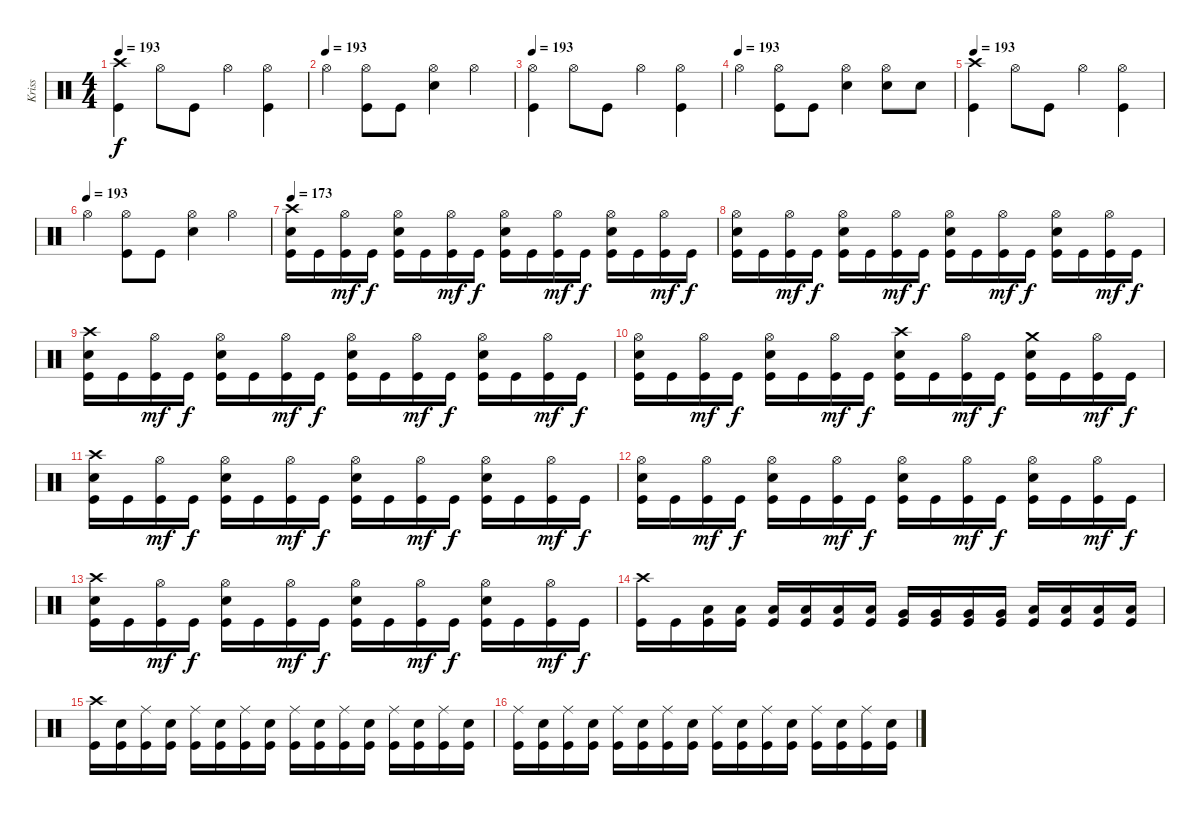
\track ("Kriss" "Kriss") {instrument percussion}
\staff {score}
\articulation defaults
\ts (4 4)
\tempo 193
\clef neutral
\ks c
("Crash high (hit)" "Kick (hit)").4{dy f} "Hi-Hat (open)".8 "Kick (hit)".8 "Hi-Hat (open)".4 ("Hi-Hat (open)" "Kick (hit)").4 |
\tempo (193)
"Hi-Hat (open)".4 ("Hi-Hat (open)" "Kick (hit)").8 "Kick (hit)".8 ("Hi-Hat (open)" "Snare (hit) 2").4 "Hi-Hat (open)".4 |
\tempo 193
("Hi-Hat (open)" "Kick (hit)").4 "Hi-Hat (open)".8 "Kick (hit)".8 "Hi-Hat (open)".4 ("Hi-Hat (open)" "Kick (hit)").4 |
\tempo (193)
"Hi-Hat (open)".4 ("Hi-Hat (open)" "Kick (hit)").8 "Kick (hit)".8 ("Hi-Hat (open)" "Snare (hit) 2").4 ("Hi-Hat (open)" "Snare (hit) 2").8 "Snare (hit) 2".8 |
\tempo 193
("Crash high (hit)" "Kick (hit)").4 "Hi-Hat (open)".8 "Kick (hit)".8 "Hi-Hat (open)".4 ("Hi-Hat (open)" "Kick (hit)").4 |
\tempo (193)
"Hi-Hat (open)".4 ("Hi-Hat (open)" "Kick (hit)").8 "Kick (hit)".8 ("Hi-Hat (open)" "Snare (hit) 2").4 "Hi-Hat (open)".4 |
\tempo 173
("Crash high (hit)" "Snare (hit) 2" "Kick (hit)").16 "Kick (hit)".16 ("Hi-Hat (open)" "Kick (hit)").16{dy mf} "Kick (hit)".16{dy f} ("Hi-Hat (open)" "Snare (hit) 2" "Kick (hit)").16 "Kick (hit)".16 ("Hi-Hat (open)" "Kick (hit)").16{dy mf} "Kick (hit)".16{dy f} ("Hi-Hat (open)" "Snare (hit) 2" "Kick (hit)").16 "Kick (hit)".16 ("Hi-Hat (open)" "Kick (hit)").16{dy mf} "Kick (hit)".16{dy f} ("Hi-Hat (open)" "Snare (hit) 2" "Kick (hit)").16 "Kick (hit)".16 ("Hi-Hat (open)" "Kick (hit)").16{dy mf} "Kick (hit)".16{dy f} |
("Hi-Hat (open)" "Snare (hit) 2" "Kick (hit)").16 "Kick (hit)".16 ("Hi-Hat (open)" "Kick (hit)").16{dy mf} "Kick (hit)".16{dy f} ("Hi-Hat (open)" "Snare (hit) 2" "Kick (hit)").16 "Kick (hit)".16 ("Hi-Hat (open)" "Kick (hit)").16{dy mf} "Kick (hit)".16{dy f} ("Hi-Hat (open)" "Snare (hit) 2" "Kick (hit)").16 "Kick (hit)".16 ("Hi-Hat (open)" "Kick (hit)").16{dy mf} "Kick (hit)".16{dy f} ("Hi-Hat (open)" "Snare (hit) 2" "Kick (hit)").16 "Kick (hit)".16 ("Hi-Hat (open)" "Kick (hit)").16{dy mf} "Kick (hit)".16{dy f} |
("Crash high (hit)" "Snare (hit) 2" "Kick (hit)").16 "Kick (hit)".16 ("Hi-Hat (open)" "Kick (hit)").16{dy mf} "Kick (hit)".16{dy f} ("Hi-Hat (open)" "Snare (hit) 2" "Kick (hit)").16 "Kick (hit)".16 ("Hi-Hat (open)" "Kick (hit)").16{dy mf} "Kick (hit)".16{dy f} ("Hi-Hat (open)" "Snare (hit) 2" "Kick (hit)").16 "Kick (hit)".16 ("Hi-Hat (open)" "Kick (hit)").16{dy mf} "Kick (hit)".16{dy f} ("Hi-Hat (open)" "Snare (hit) 2" "Kick (hit)").16 "Kick (hit)".16 ("Hi-Hat (open)" "Kick (hit)").16{dy mf} "Kick (hit)".16{dy f} |
("Hi-Hat (open)" "Snare (hit) 2" "Kick (hit)").16 "Kick (hit)".16 ("Hi-Hat (open)" "Kick (hit)").16{dy mf} "Kick (hit)".16{dy f} ("Hi-Hat (open)" "Snare (hit) 2" "Kick (hit)").16 "Kick (hit)".16 ("Hi-Hat (open)" "Kick (hit)").16{dy mf} "Kick (hit)".16{dy f} ("Crash high (hit)" "Snare (hit) 2" "Kick (hit)").16 "Kick (hit)".16 ("Hi-Hat (open)" "Kick (hit)").16{dy mf} "Kick (hit)".16{dy f} ("Crash medium (hit)" "Snare (hit) 2" "Kick (hit)").16 "Kick (hit)".16 ("Hi-Hat (open)" "Kick (hit)").16{dy mf} "Kick (hit)".16{dy f} |
("Crash high (hit)" "Snare (hit) 2" "Kick (hit)").16 "Kick (hit)".16 ("Hi-Hat (open)" "Kick (hit)").16{dy mf} "Kick (hit)".16{dy f} ("Hi-Hat (open)" "Snare (hit) 2" "Kick (hit)").16 "Kick (hit)".16 ("Hi-Hat (open)" "Kick (hit)").16{dy mf} "Kick (hit)".16{dy f} ("Hi-Hat (open)" "Snare (hit) 2" "Kick (hit)").16 "Kick (hit)".16 ("Hi-Hat (open)" "Kick (hit)").16{dy mf} "Kick (hit)".16{dy f} ("Hi-Hat (open)" "Snare (hit) 2" "Kick (hit)").16 "Kick (hit)".16 ("Hi-Hat (open)" "Kick (hit)").16{dy mf} "Kick (hit)".16{dy f} |
("Hi-Hat (open)" "Snare (hit) 2" "Kick (hit)").16 "Kick (hit)".16 ("Hi-Hat (open)" "Kick (hit)").16{dy mf} "Kick (hit)".16{dy f} ("Hi-Hat (open)" "Snare (hit) 2" "Kick (hit)").16 "Kick (hit)".16 ("Hi-Hat (open)" "Kick (hit)").16{dy mf} "Kick (hit)".16{dy f} ("Hi-Hat (open)" "Snare (hit) 2" "Kick (hit)").16 "Kick (hit)".16 ("Hi-Hat (open)" "Kick (hit)").16{dy mf} "Kick (hit)".16{dy f} ("Hi-Hat (open)" "Snare (hit) 2" "Kick (hit)").16 "Kick (hit)".16 ("Hi-Hat (open)" "Kick (hit)").16{dy mf} "Kick (hit)".16{dy f} |
("Crash high (hit)" "Snare (hit) 2" "Kick (hit)").16 "Kick (hit)".16 ("Hi-Hat (open)" "Kick (hit)").16{dy mf} "Kick (hit)".16{dy f} ("Hi-Hat (open)" "Snare (hit) 2" "Kick (hit)").16 "Kick (hit)".16 ("Hi-Hat (open)" "Kick (hit)").16{dy mf} "Kick (hit)".16{dy f} ("Hi-Hat (open)" "Snare (hit) 2" "Kick (hit)").16 "Kick (hit)".16 ("Hi-Hat (open)" "Kick (hit)").16{dy mf} "Kick (hit)".16{dy f} ("Hi-Hat (open)" "Snare (hit) 2" "Kick (hit)").16 "Kick (hit)".16 ("Hi-Hat (open)" "Kick (hit)").16{dy mf} "Kick (hit)".16{dy f} |
("Crash high (hit)" "Kick (hit)").16 "Kick (hit)".16 ("Low Tom (hit)" "Kick (hit)").16 ("Low Tom (hit)" "Kick (hit)").16 ("Low Tom (hit)" "Kick (hit)").16 ("Low Tom (hit)" "Kick (hit)").16 ("Low Tom (hit)" "Kick (hit)").16 ("Low Tom (hit)" "Kick (hit)").16 ("Very Low Tom (hit)" "Kick (hit)").16 ("Very Low Tom (hit)" "Kick (hit)").16 ("Very Low Tom (hit)" "Kick (hit)").16 ("Very Low Tom (hit)" "Kick (hit)").16 ("Low Floor Tom (hit)" "Kick (hit)").16 ("Low Floor Tom (hit)" "Kick (hit)").16 ("Low Floor Tom (hit)" "Kick (hit)").16 ("Low Floor Tom (hit)" "Kick (hit)").16 |
("Crash high (hit)" "Kick (hit)").16 ("Snare (hit) 2" "Kick (hit)").16 ("Ride (middle)" "Kick (hit)").16 ("Snare (hit) 2" "Kick (hit)").16 ("Ride (middle)" "Kick (hit)").16 ("Snare (hit) 2" "Kick (hit)").16 ("Ride (middle)" "Kick (hit)").16 ("Snare (hit) 2" "Kick (hit)").16 ("Ride (middle)" "Kick (hit)").16 ("Snare (hit) 2" "Kick (hit)").16 ("Ride (middle)" "Kick (hit)").16 ("Snare (hit) 2" "Kick (hit)").16 ("Ride (middle)" "Kick (hit)").16 ("Snare (hit) 2" "Kick (hit)").16 ("Ride (middle)" "Kick (hit)").16 ("Snare (hit) 2" "Kick (hit)").16 |
("Ride (middle)" "Kick (hit)").16 ("Snare (hit) 2" "Kick (hit)").16 ("Ride (middle)" "Kick (hit)").16 ("Snare (hit) 2" "Kick (hit)").16 ("Ride (middle)" "Kick (hit)").16 ("Snare (hit) 2" "Kick (hit)").16 ("Ride (middle)" "Kick (hit)").16 ("Snare (hit) 2" "Kick (hit)").16 ("Ride (middle)" "Kick (hit)").16 ("Snare (hit) 2" "Kick (hit)").16 ("Ride (middle)" "Kick (hit)").16 ("Snare (hit) 2" "Kick (hit)").16 ("Ride (middle)" "Kick (hit)").16 ("Snare (hit) 2" "Kick (hit)").16 ("Ride (middle)" "Kick (hit)").16 ("Snare (hit) 2" "Kick (hit)").16
